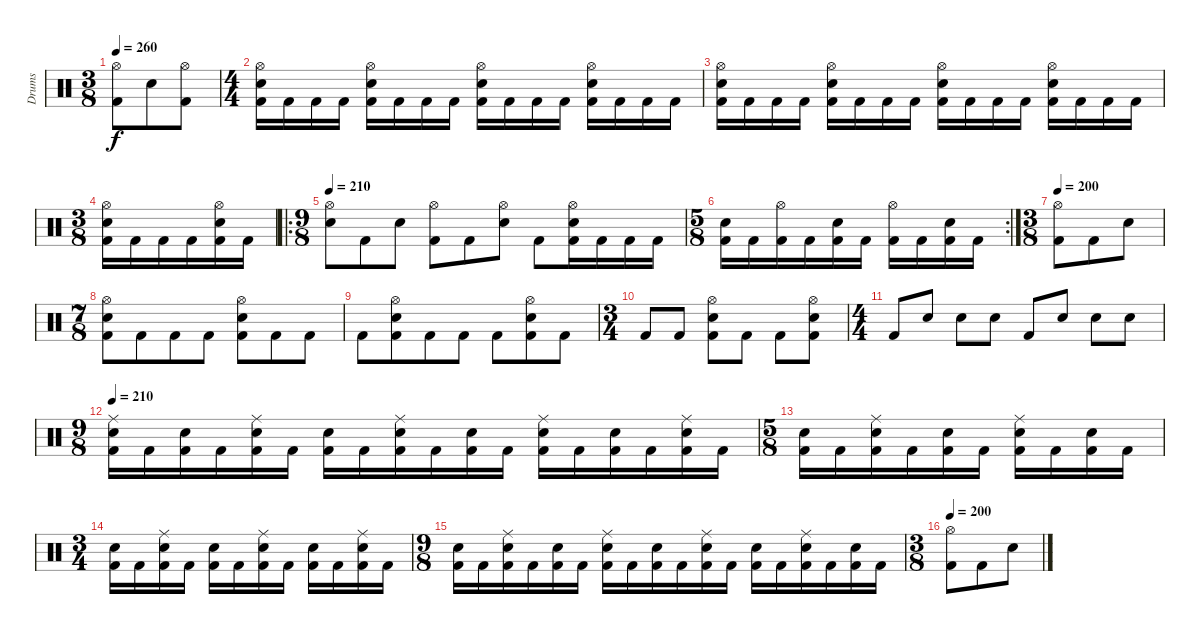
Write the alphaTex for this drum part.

\track ("Drums" "Drums") {instrument percussion}
\staff {score}
\articulation defaults
\ts (3 8)
\tempo 260
\clef neutral
\ks c
("Hi-Hat (open)" "Kick (hit) 2").8{dy f} "Electric Snare (hit)".8 ("Hi-Hat (open)" "Kick (hit) 2").8 |
\ts (4 4)
("Hi-Hat (open)" "Electric Snare (hit)" "Kick (hit) 2").16 "Kick (hit) 2".16 "Kick (hit) 2".16 "Kick (hit) 2".16 ("Hi-Hat (open)" "Electric Snare (hit)" "Kick (hit) 2").16 "Kick (hit) 2".16 "Kick (hit) 2".16 "Kick (hit) 2".16 ("Hi-Hat (open)" "Electric Snare (hit)" "Kick (hit) 2").16 "Kick (hit) 2".16 "Kick (hit) 2".16 "Kick (hit) 2".16 ("Hi-Hat (open)" "Electric Snare (hit)" "Kick (hit) 2").16 "Kick (hit) 2".16 "Kick (hit) 2".16 "Kick (hit) 2".16 |
("Hi-Hat (open)" "Electric Snare (hit)" "Kick (hit) 2").16 "Kick (hit) 2".16 "Kick (hit) 2".16 "Kick (hit) 2".16 ("Hi-Hat (open)" "Electric Snare (hit)" "Kick (hit) 2").16 "Kick (hit) 2".16 "Kick (hit) 2".16 "Kick (hit) 2".16 ("Hi-Hat (open)" "Electric Snare (hit)" "Kick (hit) 2").16 "Kick (hit) 2".16 "Kick (hit) 2".16 "Kick (hit) 2".16 ("Hi-Hat (open)" "Electric Snare (hit)" "Kick (hit) 2").16 "Kick (hit) 2".16 "Kick (hit) 2".16 "Kick (hit) 2".16 |
\ts (3 8)
("Hi-Hat (open)" "Electric Snare (hit)" "Kick (hit) 2").16 "Kick (hit) 2".16 "Kick (hit) 2".16 "Kick (hit) 2".16 ("Hi-Hat (open)" "Electric Snare (hit)" "Kick (hit) 2").16 "Kick (hit) 2".16 |
\ro
\ts (9 8)
\tempo 210
("Hi-Hat (open)" "Electric Snare (hit)").8 "Kick (hit) 2".8 "Electric Snare (hit)".8 ("Hi-Hat (open)" "Kick (hit) 2").8 "Kick (hit) 2".8 ("Hi-Hat (open)" "Electric Snare (hit)").8 "Kick (hit) 2".8 ("Hi-Hat (open)" "Electric Snare (hit)" "Kick (hit) 2").16 "Kick (hit) 2".16 "Kick (hit) 2".16 "Kick (hit) 2".16 |
\rc 2
\ts (5 8)
("Electric Snare (hit)" "Kick (hit) 2").16 "Kick (hit) 2".16 ("Hi-Hat (open)" "Kick (hit) 2").16 "Kick (hit) 2".16 ("Electric Snare (hit)" "Kick (hit) 2").16 "Kick (hit) 2".16 ("Hi-Hat (open)" "Kick (hit) 2").16 "Kick (hit) 2".16 ("Electric Snare (hit)" "Kick (hit) 2").16 "Kick (hit) 2".16 |
\ts (3 8)
\tempo 200
("Hi-Hat (open)" "Kick (hit) 2").8 "Kick (hit) 2".8 "Electric Snare (hit)".8 |
\ts (7 8)
("Hi-Hat (open)" "Electric Snare (hit)" "Kick (hit) 2").8 "Kick (hit) 2".8 "Kick (hit) 2".8 "Kick (hit) 2".8 ("Hi-Hat (open)" "Electric Snare (hit)" "Kick (hit) 2").8 "Kick (hit) 2".8 "Kick (hit) 2".8 |
"Kick (hit) 2".8 ("Hi-Hat (open)" "Electric Snare (hit)" "Kick (hit) 2").8 "Kick (hit) 2".8 "Kick (hit) 2".8 "Kick (hit) 2".8 ("Hi-Hat (open)" "Electric Snare (hit)" "Kick (hit) 2").8 "Kick (hit) 2".8 |
\ts (3 4)
"Kick (hit) 2".8 "Kick (hit) 2".8 ("Hi-Hat (open)" "Electric Snare (hit)" "Kick (hit) 2").8 "Kick (hit) 2".8 "Kick (hit) 2".8 ("Hi-Hat (open)" "Electric Snare (hit)" "Kick (hit) 2").8 |
\ts (4 4)
"Kick (hit) 2".8 "Electric Snare (hit)".8 "Electric Snare (hit)".8 "Electric Snare (hit)".8 "Kick (hit) 2".8 "Electric Snare (hit)".8 "Electric Snare (hit)".8 "Electric Snare (hit)".8 |
\ts (9 8)
\tempo 210
("Ride (middle)" "Electric Snare (hit)" "Kick (hit) 2").16 "Kick (hit) 2".16 ("Electric Snare (hit)" "Kick (hit) 2").16 "Kick (hit) 2".16 ("Ride (middle)" "Electric Snare (hit)" "Kick (hit) 2").16 "Kick (hit) 2".16 ("Electric Snare (hit)" "Kick (hit) 2").16 "Kick (hit) 2".16 ("Ride (middle)" "Electric Snare (hit)" "Kick (hit) 2").16 "Kick (hit) 2".16 ("Electric Snare (hit)" "Kick (hit) 2").16 "Kick (hit) 2".16 ("Ride (middle)" "Electric Snare (hit)" "Kick (hit) 2").16 "Kick (hit) 2".16 ("Electric Snare (hit)" "Kick (hit) 2").16 "Kick (hit) 2".16 ("Ride (middle)" "Electric Snare (hit)" "Kick (hit) 2").16 "Kick (hit) 2".16 |
\ts (5 8)
("Electric Snare (hit)" "Kick (hit) 2").16 "Kick (hit) 2".16 ("Ride (middle)" "Electric Snare (hit)" "Kick (hit) 2").16 "Kick (hit) 2".16 ("Electric Snare (hit)" "Kick (hit) 2").16 "Kick (hit) 2".16 ("Ride (middle)" "Electric Snare (hit)" "Kick (hit) 2").16 "Kick (hit) 2".16 ("Electric Snare (hit)" "Kick (hit) 2").16 "Kick (hit) 2".16 |
\ts (3 4)
("Electric Snare (hit)" "Kick (hit) 2").16 "Kick (hit) 2".16 ("Ride (middle)" "Electric Snare (hit)" "Kick (hit) 2").16 "Kick (hit) 2".16 ("Electric Snare (hit)" "Kick (hit) 2").16 "Kick (hit) 2".16 ("Ride (middle)" "Electric Snare (hit)" "Kick (hit) 2").16 "Kick (hit) 2".16 ("Electric Snare (hit)" "Kick (hit) 2").16 "Kick (hit) 2".16 ("Ride (middle)" "Electric Snare (hit)" "Kick (hit) 2").16 "Kick (hit) 2".16 |
\ts (9 8)
("Electric Snare (hit)" "Kick (hit) 2").16 "Kick (hit) 2".16 ("Ride (middle)" "Electric Snare (hit)" "Kick (hit) 2").16 "Kick (hit) 2".16 ("Electric Snare (hit)" "Kick (hit) 2").16 "Kick (hit) 2".16 ("Ride (middle)" "Electric Snare (hit)" "Kick (hit) 2").16 "Kick (hit) 2".16 ("Electric Snare (hit)" "Kick (hit) 2").16 "Kick (hit) 2".16 ("Ride (middle)" "Electric Snare (hit)" "Kick (hit) 2").16 "Kick (hit) 2".16 ("Electric Snare (hit)" "Kick (hit) 2").16 "Kick (hit) 2".16 ("Ride (middle)" "Electric Snare (hit)" "Kick (hit) 2").16 "Kick (hit) 2".16 ("Electric Snare (hit)" "Kick (hit) 2").16 "Kick (hit) 2".16 |
\ts (3 8)
\tempo 200
("Hi-Hat (open)" "Kick (hit) 2").8 "Kick (hit) 2".8 "Electric Snare (hit)".8
